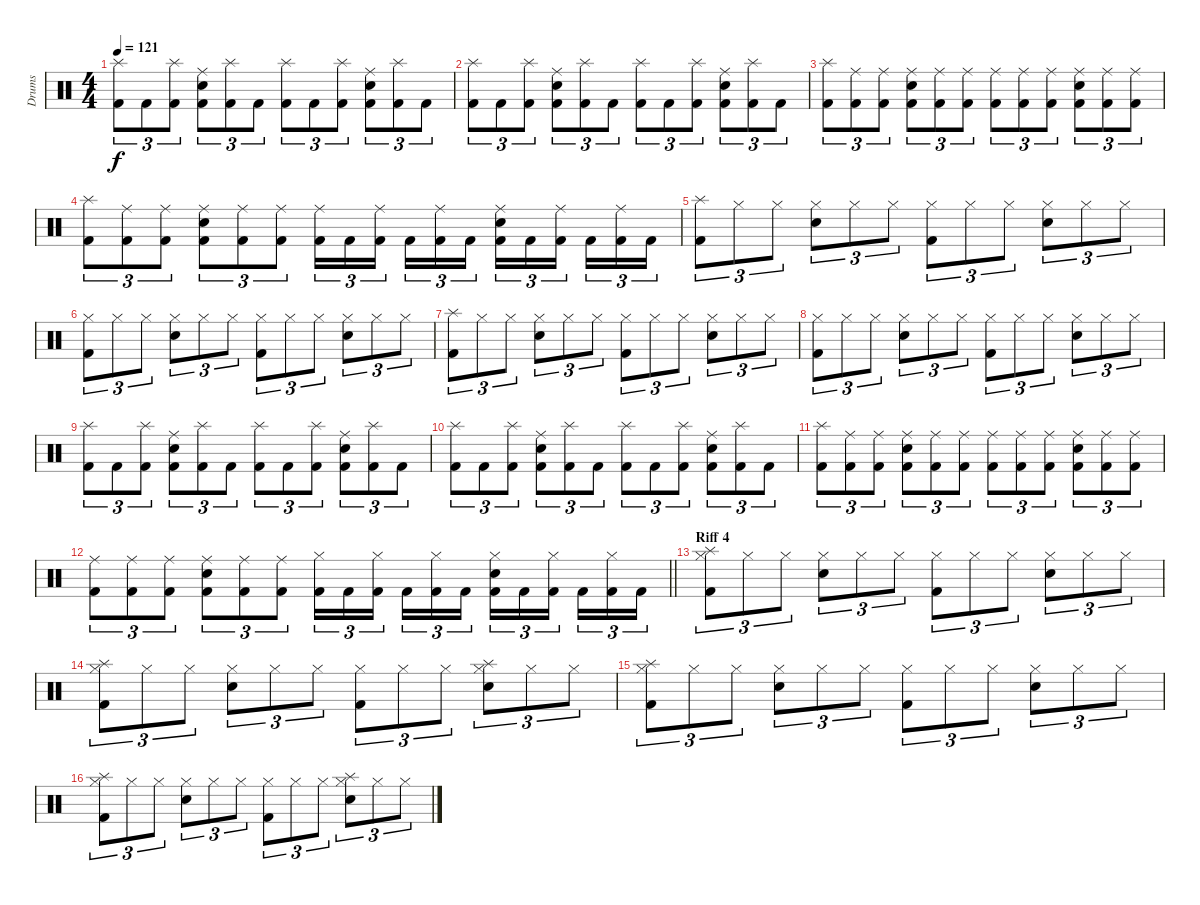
\track ("Drums" "Drums") {instrument percussion}
\staff {score}
\articulation defaults
\ts (4 4)
\tempo 121
\clef neutral
\ks c
("Kick (hit) 2" "Splash (hit)").8{tu (3 2) dy f} "Kick (hit) 2".8{tu (3 2)} ("Kick (hit) 2" "Splash (hit)").8{tu (3 2)} ("Kick (hit) 2" "Snare (hit) 2" "Ride (middle)").8{tu (3 2)} ("Kick (hit) 2" "Splash (hit)").8{tu (3 2)} "Kick (hit) 2".8{tu (3 2)} ("Kick (hit) 2" "Splash (hit)").8{tu (3 2)} "Kick (hit) 2".8{tu (3 2)} ("Kick (hit) 2" "Splash (hit)").8{tu (3 2)} ("Kick (hit) 2" "Snare (hit) 2" "Ride (middle)").8{tu (3 2)} ("Kick (hit) 2" "Splash (hit)").8{tu (3 2)} "Kick (hit) 2".8{tu (3 2)} |
("Kick (hit) 2" "Splash (hit)").8{tu (3 2)} "Kick (hit) 2".8{tu (3 2)} ("Kick (hit) 2" "Splash (hit)").8{tu (3 2)} ("Kick (hit) 2" "Snare (hit) 2" "Ride (middle)").8{tu (3 2)} ("Kick (hit) 2" "Splash (hit)").8{tu (3 2)} "Kick (hit) 2".8{tu (3 2)} ("Kick (hit) 2" "Splash (hit)").8{tu (3 2)} "Kick (hit) 2".8{tu (3 2)} ("Kick (hit) 2" "Splash (hit)").8{tu (3 2)} ("Kick (hit) 2" "Snare (hit) 2" "Ride (middle)").8{tu (3 2)} ("Kick (hit) 2" "Splash (hit)").8{tu (3 2)} "Kick (hit) 2".8{tu (3 2)} |
("Kick (hit) 2" "Splash (hit)").8{tu (3 2)} ("Kick (hit) 2" "Ride (middle)").8{tu (3 2)} ("Kick (hit) 2" "Ride (middle)").8{tu (3 2)} ("Kick (hit) 2" "Snare (hit) 2" "Ride (middle)").8{tu (3 2)} ("Kick (hit) 2" "Ride (middle)").8{tu (3 2)} ("Kick (hit) 2" "Ride (middle)").8{tu (3 2)} ("Kick (hit) 2" "Ride (middle)").8{tu (3 2)} ("Kick (hit) 2" "Ride (middle)").8{tu (3 2)} ("Kick (hit) 2" "Ride (middle)").8{tu (3 2)} ("Kick (hit) 2" "Snare (hit) 2" "Ride (middle)").8{tu (3 2)} ("Kick (hit) 2" "Ride (middle)").8{tu (3 2)} ("Kick (hit) 2" "Ride (middle)").8{tu (3 2)} |
("Kick (hit) 2" "Splash (hit)").8{tu (3 2)} ("Kick (hit) 2" "Ride (middle)").8{tu (3 2)} ("Kick (hit) 2" "Ride (middle)").8{tu (3 2)} ("Kick (hit) 2" "Snare (hit) 2" "Ride (middle)").8{tu (3 2)} ("Kick (hit) 2" "Ride (middle)").8{tu (3 2)} ("Kick (hit) 2" "Ride (middle)").8{tu (3 2)} ("Kick (hit) 2" "Ride (middle)").16{tu (3 2)} "Kick (hit) 2".16{tu (3 2)} ("Kick (hit) 2" "Ride (middle)").16{tu (3 2) beam splitsecondary} "Kick (hit) 2".16{tu (3 2)} ("Kick (hit) 2" "Ride (middle)").16{tu (3 2)} "Kick (hit) 2".16{tu (3 2)} ("Kick (hit) 2" "Snare (hit) 2" "Ride (middle)").16{tu (3 2)} "Kick (hit) 2".16{tu (3 2)} ("Kick (hit) 2" "Ride (middle)").16{tu (3 2) beam splitsecondary} "Kick (hit) 2".16{tu (3 2)} ("Kick (hit) 2" "Ride (middle)").16{tu (3 2)} "Kick (hit) 2".16{tu (3 2)} |
("Kick (hit) 2" "Splash (hit)").8{tu (3 2)} "Hi-Hat (closed)".8{tu (3 2)} "Hi-Hat (closed)".8{tu (3 2)} ("Snare (hit) 2" "Hi-Hat (closed)").8{tu (3 2)} "Hi-Hat (closed)".8{tu (3 2)} "Hi-Hat (closed)".8{tu (3 2)} ("Kick (hit) 2" "Hi-Hat (closed)").8{tu (3 2)} "Hi-Hat (closed)".8{tu (3 2)} "Hi-Hat (closed)".8{tu (3 2)} ("Snare (hit) 2" "Hi-Hat (closed)").8{tu (3 2)} "Hi-Hat (closed)".8{tu (3 2)} "Hi-Hat (closed)".8{tu (3 2)} |
("Kick (hit) 2" "Hi-Hat (closed)").8{tu (3 2)} "Hi-Hat (closed)".8{tu (3 2)} "Hi-Hat (closed)".8{tu (3 2)} ("Snare (hit) 2" "Hi-Hat (closed)").8{tu (3 2)} "Hi-Hat (closed)".8{tu (3 2)} "Hi-Hat (closed)".8{tu (3 2)} ("Kick (hit) 2" "Hi-Hat (closed)").8{tu (3 2)} "Hi-Hat (closed)".8{tu (3 2)} "Hi-Hat (closed)".8{tu (3 2)} ("Snare (hit) 2" "Hi-Hat (closed)").8{tu (3 2)} "Hi-Hat (closed)".8{tu (3 2)} "Hi-Hat (closed)".8{tu (3 2)} |
("Kick (hit) 2" "Splash (hit)").8{tu (3 2)} "Hi-Hat (closed)".8{tu (3 2)} "Hi-Hat (closed)".8{tu (3 2)} ("Snare (hit) 2" "Hi-Hat (closed)").8{tu (3 2)} "Hi-Hat (closed)".8{tu (3 2)} "Hi-Hat (closed)".8{tu (3 2)} ("Kick (hit) 2" "Hi-Hat (closed)").8{tu (3 2)} "Hi-Hat (closed)".8{tu (3 2)} "Hi-Hat (closed)".8{tu (3 2)} ("Snare (hit) 2" "Hi-Hat (closed)").8{tu (3 2)} "Hi-Hat (closed)".8{tu (3 2)} "Hi-Hat (closed)".8{tu (3 2)} |
("Kick (hit) 2" "Hi-Hat (closed)").8{tu (3 2)} "Hi-Hat (closed)".8{tu (3 2)} "Hi-Hat (closed)".8{tu (3 2)} ("Snare (hit) 2" "Hi-Hat (closed)").8{tu (3 2)} "Hi-Hat (closed)".8{tu (3 2)} "Hi-Hat (closed)".8{tu (3 2)} ("Kick (hit) 2" "Hi-Hat (closed)").8{tu (3 2)} "Hi-Hat (closed)".8{tu (3 2)} "Hi-Hat (closed)".8{tu (3 2)} ("Snare (hit) 2" "Hi-Hat (closed)").8{tu (3 2)} "Hi-Hat (closed)".8{tu (3 2)} "Hi-Hat (closed)".8{tu (3 2)} |
("Kick (hit) 2" "Splash (hit)").8{tu (3 2)} "Kick (hit) 2".8{tu (3 2)} ("Kick (hit) 2" "Splash (hit)").8{tu (3 2)} ("Kick (hit) 2" "Snare (hit) 2" "Ride (middle)").8{tu (3 2)} ("Kick (hit) 2" "Splash (hit)").8{tu (3 2)} "Kick (hit) 2".8{tu (3 2)} ("Kick (hit) 2" "Splash (hit)").8{tu (3 2)} "Kick (hit) 2".8{tu (3 2)} ("Kick (hit) 2" "Splash (hit)").8{tu (3 2)} ("Kick (hit) 2" "Snare (hit) 2" "Ride (middle)").8{tu (3 2)} ("Kick (hit) 2" "Splash (hit)").8{tu (3 2)} "Kick (hit) 2".8{tu (3 2)} |
("Kick (hit) 2" "Splash (hit)").8{tu (3 2)} "Kick (hit) 2".8{tu (3 2)} ("Kick (hit) 2" "Splash (hit)").8{tu (3 2)} ("Kick (hit) 2" "Snare (hit) 2" "Ride (middle)").8{tu (3 2)} ("Kick (hit) 2" "Splash (hit)").8{tu (3 2)} "Kick (hit) 2".8{tu (3 2)} ("Kick (hit) 2" "Splash (hit)").8{tu (3 2)} "Kick (hit) 2".8{tu (3 2)} ("Kick (hit) 2" "Splash (hit)").8{tu (3 2)} ("Kick (hit) 2" "Snare (hit) 2" "Ride (middle)").8{tu (3 2)} ("Kick (hit) 2" "Splash (hit)").8{tu (3 2)} "Kick (hit) 2".8{tu (3 2)} |
("Kick (hit) 2" "Splash (hit)").8{tu (3 2)} ("Kick (hit) 2" "Ride (middle)").8{tu (3 2)} ("Kick (hit) 2" "Ride (middle)").8{tu (3 2)} ("Kick (hit) 2" "Snare (hit) 2" "Ride (middle)").8{tu (3 2)} ("Kick (hit) 2" "Ride (middle)").8{tu (3 2)} ("Kick (hit) 2" "Ride (middle)").8{tu (3 2)} ("Kick (hit) 2" "Ride (middle)").8{tu (3 2)} ("Kick (hit) 2" "Ride (middle)").8{tu (3 2)} ("Kick (hit) 2" "Ride (middle)").8{tu (3 2)} ("Kick (hit) 2" "Snare (hit) 2" "Ride (middle)").8{tu (3 2)} ("Kick (hit) 2" "Ride (middle)").8{tu (3 2)} ("Kick (hit) 2" "Ride (middle)").8{tu (3 2)} |
\barLineRight lightlight
("Kick (hit) 2" "Ride (middle)").8{tu (3 2)} ("Kick (hit) 2" "Ride (middle)").8{tu (3 2)} ("Kick (hit) 2" "Ride (middle)").8{tu (3 2)} ("Kick (hit) 2" "Snare (hit) 2" "Ride (middle)").8{tu (3 2)} ("Kick (hit) 2" "Ride (middle)").8{tu (3 2)} ("Kick (hit) 2" "Ride (middle)").8{tu (3 2)} ("Kick (hit) 2" "Hi-Hat (closed)").16{tu (3 2)} "Kick (hit) 2".16{tu (3 2)} ("Kick (hit) 2" "Hi-Hat (closed)").16{tu (3 2) beam splitsecondary} "Kick (hit) 2".16{tu (3 2)} ("Kick (hit) 2" "Hi-Hat (closed)").16{tu (3 2)} "Kick (hit) 2".16{tu (3 2)} ("Kick (hit) 2" "Snare (hit) 2" "Hi-Hat (closed)").16{tu (3 2)} "Kick (hit) 2".16{tu (3 2)} ("Kick (hit) 2" "Hi-Hat (closed)").16{tu (3 2) beam splitsecondary} "Kick (hit) 2".16{tu (3 2)} ("Kick (hit) 2" "Hi-Hat (closed)").16{tu (3 2)} "Kick (hit) 2".16{tu (3 2)} |
\section ("" "Riff 4")
("Splash (hit)" "Kick (hit) 2" "Hi-Hat (closed)").8{tu (3 2)} "Hi-Hat (closed)".8{tu (3 2)} "Hi-Hat (closed)".8{tu (3 2)} ("Snare (hit) 2" "Hi-Hat (closed)").8{tu (3 2)} "Hi-Hat (closed)".8{tu (3 2)} "Hi-Hat (closed)".8{tu (3 2)} ("Kick (hit) 2" "Hi-Hat (closed)").8{tu (3 2)} "Hi-Hat (closed)".8{tu (3 2)} "Hi-Hat (closed)".8{tu (3 2)} ("Snare (hit) 2" "Hi-Hat (closed)").8{tu (3 2)} "Hi-Hat (closed)".8{tu (3 2)} "Hi-Hat (closed)".8{tu (3 2)} |
("Splash (hit)" "Kick (hit) 2" "Hi-Hat (closed)").8{tu (3 2)} "Hi-Hat (closed)".8{tu (3 2)} "Hi-Hat (closed)".8{tu (3 2)} ("Snare (hit) 2" "Hi-Hat (closed)").8{tu (3 2)} "Hi-Hat (closed)".8{tu (3 2)} "Hi-Hat (closed)".8{tu (3 2)} ("Kick (hit) 2" "Hi-Hat (closed)").8{tu (3 2)} "Hi-Hat (closed)".8{tu (3 2)} "Hi-Hat (closed)".8{tu (3 2)} ("Splash (hit)" "Snare (hit) 2" "Hi-Hat (closed)").8{tu (3 2)} "Hi-Hat (closed)".8{tu (3 2)} "Hi-Hat (closed)".8{tu (3 2)} |
("Splash (hit)" "Kick (hit) 2" "Hi-Hat (closed)").8{tu (3 2)} "Hi-Hat (closed)".8{tu (3 2)} "Hi-Hat (closed)".8{tu (3 2)} ("Snare (hit) 2" "Hi-Hat (closed)").8{tu (3 2)} "Hi-Hat (closed)".8{tu (3 2)} "Hi-Hat (closed)".8{tu (3 2)} ("Kick (hit) 2" "Hi-Hat (closed)").8{tu (3 2)} "Hi-Hat (closed)".8{tu (3 2)} "Hi-Hat (closed)".8{tu (3 2)} ("Snare (hit) 2" "Hi-Hat (closed)").8{tu (3 2)} "Hi-Hat (closed)".8{tu (3 2)} "Hi-Hat (closed)".8{tu (3 2)} |
("Splash (hit)" "Kick (hit) 2" "Hi-Hat (closed)").8{tu (3 2)} "Hi-Hat (closed)".8{tu (3 2)} "Hi-Hat (closed)".8{tu (3 2)} ("Snare (hit) 2" "Hi-Hat (closed)").8{tu (3 2)} "Hi-Hat (closed)".8{tu (3 2)} "Hi-Hat (closed)".8{tu (3 2)} ("Kick (hit) 2" "Hi-Hat (closed)").8{tu (3 2)} "Hi-Hat (closed)".8{tu (3 2)} "Hi-Hat (closed)".8{tu (3 2)} ("Splash (hit)" "Snare (hit) 2" "Hi-Hat (closed)").8{tu (3 2)} "Hi-Hat (closed)".8{tu (3 2)} "Hi-Hat (closed)".8{tu (3 2)}
